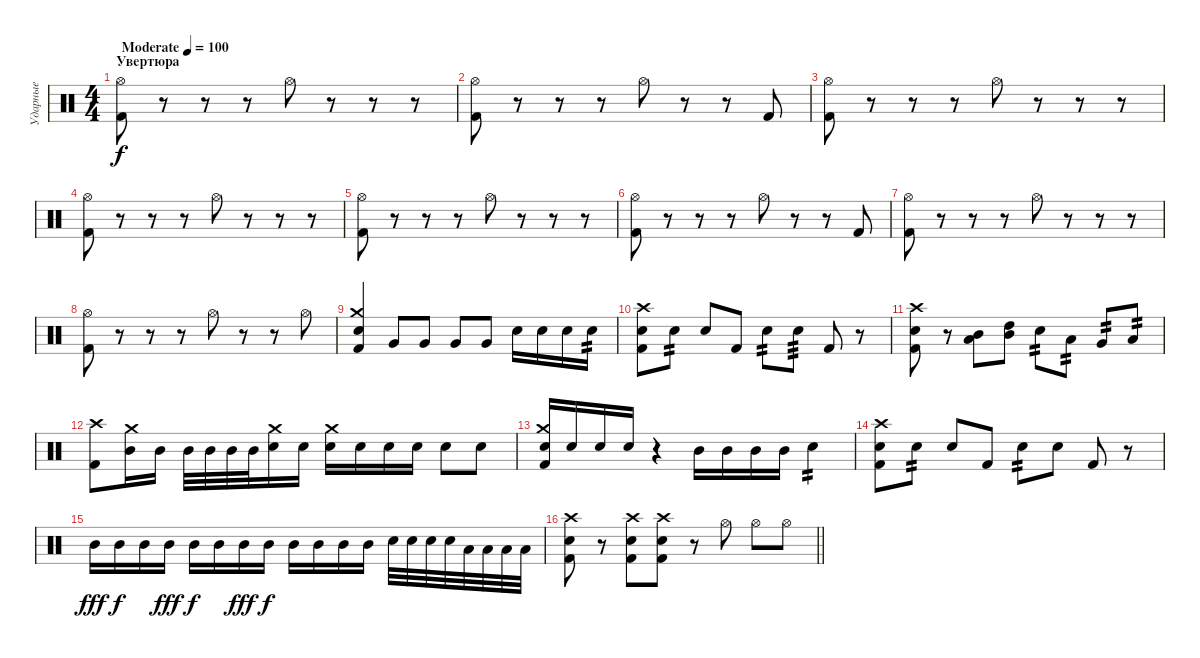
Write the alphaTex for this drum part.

\track ("Ударные" "Ударные") {instrument percussion}
\staff {score}
\articulation defaults
\ts (4 4)
\section ("" "Увертюра")
\tempo (100 "Moderate")
\clef neutral
\ks c
("Kick (hit) 2" "Hi-Hat (open)").8{dy f} r.8 r.8 r.8 "Hi-Hat (open)".8 r.8 r.8 r.8 |
("Kick (hit) 2" "Hi-Hat (open)").8 r.8 r.8 r.8 "Hi-Hat (open)".8 r.8 r.8 "Kick (hit) 2".8 |
("Kick (hit) 2" "Hi-Hat (open)").8 r.8 r.8 r.8 "Hi-Hat (open)".8 r.8 r.8 r.8 |
("Kick (hit) 2" "Hi-Hat (open)").8 r.8 r.8 r.8 "Hi-Hat (open)".8 r.8 r.8 r.8 |
("Kick (hit) 2" "Hi-Hat (open)").8 r.8 r.8 r.8 "Hi-Hat (open)".8 r.8 r.8 r.8 |
("Kick (hit) 2" "Hi-Hat (open)").8 r.8 r.8 r.8 "Hi-Hat (open)".8 r.8 r.8 "Kick (hit) 2".8 |
("Kick (hit) 2" "Hi-Hat (open)").8 r.8 r.8 r.8 "Hi-Hat (open)".8 r.8 r.8 r.8 |
("Kick (hit) 2" "Hi-Hat (open)").8 r.8 r.8 r.8 "Hi-Hat (open)".8 r.8 r.8 "Hi-Hat (open)".8 |
("Crash medium (hit)" "Electric Snare (hit)" "Kick (hit) 2").4 "Very Low Tom (hit)".8 "Very Low Tom (hit)".8 "Very Low Tom (hit)".8 "Very Low Tom (hit)".8 "Snare (hit) 2".16 "Snare (hit) 2".16 "Snare (hit) 2".16 "Snare (hit) 2".16{tp 2} |
("Kick (hit) 2" "Snare (hit) 2" "Crash high (hit)").8 "Electric Snare (hit)".8{tp 2} "Electric Snare (hit)".8 "Kick (hit) 2".8 "Electric Snare (hit)".8{tp 2} "Electric Snare (hit)".8{tp 3} "Kick (hit) 2".8 r.8 |
("Kick (hit) 2" "Snare (hit) 2" "Crash high (hit)").8 r.8 ("Mid Tom (hit)" "Low Tom (hit)").8 ("High Tom (hit)" "Mid Tom (hit)").8 "Electric Snare (hit)".8{tp 2} "Low Floor Tom (hit)".8{tp 2} "Very Low Tom (hit)".8{tp 2} "Low Tom (hit)".8{tp 2} |
("Crash high (hit)" "Kick (hit) 2").8 ("Crash medium (hit)" "Mid Tom (hit)").16 "Mid Tom (hit)".16 "Mid Tom (hit)".32 "Mid Tom (hit)".32 "Mid Tom (hit)".32 "Mid Tom (hit)".32 ("Crash medium (hit)" "Snare (hit) 2").16 "Snare (hit) 2".16 ("Crash medium (hit)" "Snare (hit) 2").16 "Snare (hit) 2".16 "Snare (hit) 2".16 "Snare (hit) 2".16 "Snare (hit) 2".8 "Snare (hit) 2".8 |
("Crash medium (hit)" "Snare (hit) 2" "Kick (hit) 2").16 "Snare (hit) 2".16 "Snare (hit) 2".16 "Snare (hit) 2".16 r.4 "Mid Tom (hit)".16 "Mid Tom (hit)".16 "Mid Tom (hit)".16 "Mid Tom (hit)".16 "Electric Snare (hit)".4{tp 2} |
("Kick (hit) 2" "Snare (hit) 2" "Crash high (hit)").8 "Electric Snare (hit)".8{tp 2} "Electric Snare (hit)".8 "Kick (hit) 2".8 "Electric Snare (hit)".8{tp 2} "Electric Snare (hit)".8 "Kick (hit) 2".8 r.8 |
"Mid Tom (hit)".16{dy fff} "Mid Tom (hit)".16{dy f} "Mid Tom (hit)".16 "Mid Tom (hit)".16{dy fff} "Mid Tom (hit)".16{dy f} "Mid Tom (hit)".16 "Mid Tom (hit)".16{dy fff} "Mid Tom (hit)".16{dy f} "Mid Tom (hit)".16 "Mid Tom (hit)".16 "Mid Tom (hit)".16 "Mid Tom (hit)".16 "Snare (hit) 2".32 "Snare (hit) 2".32 "Snare (hit) 2".32 "Snare (hit) 2".32 "Low Tom (hit)".32 "Low Tom (hit)".32 "Low Tom (hit)".32 "Low Tom (hit)".32 |
\barLineRight lightlight
("Kick (hit) 2" "Snare (hit) 2" "Crash high (hit)").8 r.8 ("Kick (hit) 2" "Snare (hit) 2" "Crash high (hit)").8 ("Kick (hit) 2" "Snare (hit) 2" "Crash high (hit)").8 r.8 "Hi-Hat (open)".8 "Hi-Hat (open)".8 "Hi-Hat (open)".8
